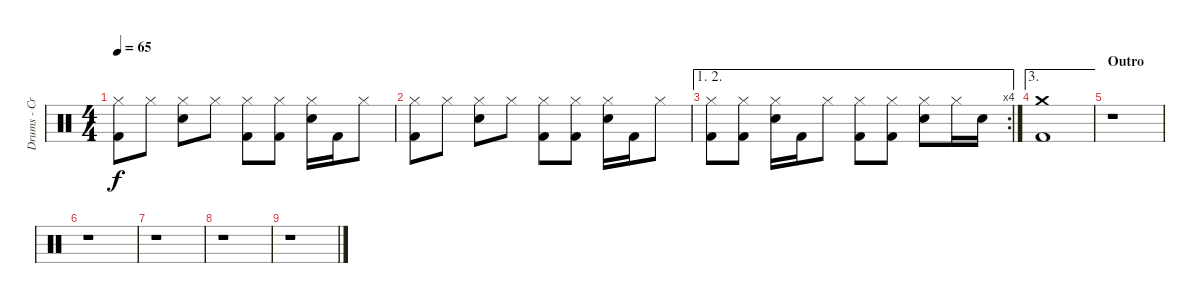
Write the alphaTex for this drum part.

\track ("Drums - Craig" "Drums - Cr") {instrument percussion}
\staff {score}
\articulation defaults
\ts (4 4)
\tempo 65
\clef neutral
\ks c
("Hi-Hat (closed)" "Kick (hit) 2").8{dy f} "Hi-Hat (closed)".8 ("Hi-Hat (closed)" "Snare (hit) 2").8 "Hi-Hat (closed)".8 ("Hi-Hat (closed)" "Kick (hit) 2").8 ("Hi-Hat (closed)" "Kick (hit) 2").8 ("Hi-Hat (closed)" "Snare (hit) 2").16 "Kick (hit) 2".16 "Hi-Hat (closed)".8 |
("Hi-Hat (closed)" "Kick (hit) 2").8 "Hi-Hat (closed)".8 ("Hi-Hat (closed)" "Snare (hit) 2").8 "Hi-Hat (closed)".8 ("Hi-Hat (closed)" "Kick (hit) 2").8 ("Hi-Hat (closed)" "Kick (hit) 2").8 ("Hi-Hat (closed)" "Snare (hit) 2").16 "Kick (hit) 2".16 "Hi-Hat (closed)".8 |
\ae (1 2)
\rc 4
("Hi-Hat (closed)" "Kick (hit) 2").8 ("Hi-Hat (closed)" "Kick (hit) 2").8 ("Hi-Hat (closed)" "Snare (hit) 2").16 "Kick (hit) 2".16 "Hi-Hat (closed)".8 ("Hi-Hat (closed)" "Kick (hit) 2").8 ("Hi-Hat (closed)" "Kick (hit) 2").8 ("Hi-Hat (closed)" "Snare (hit) 2").8 "Hi-Hat (closed)".16 "Snare (hit) 2".16 |
\ae 3
("Crash medium (hit)" "Kick (hit) 2").1 |
\section ("" "Outro")
r.1 |
r.1 |
r.1 |
r.1 |
r.1
